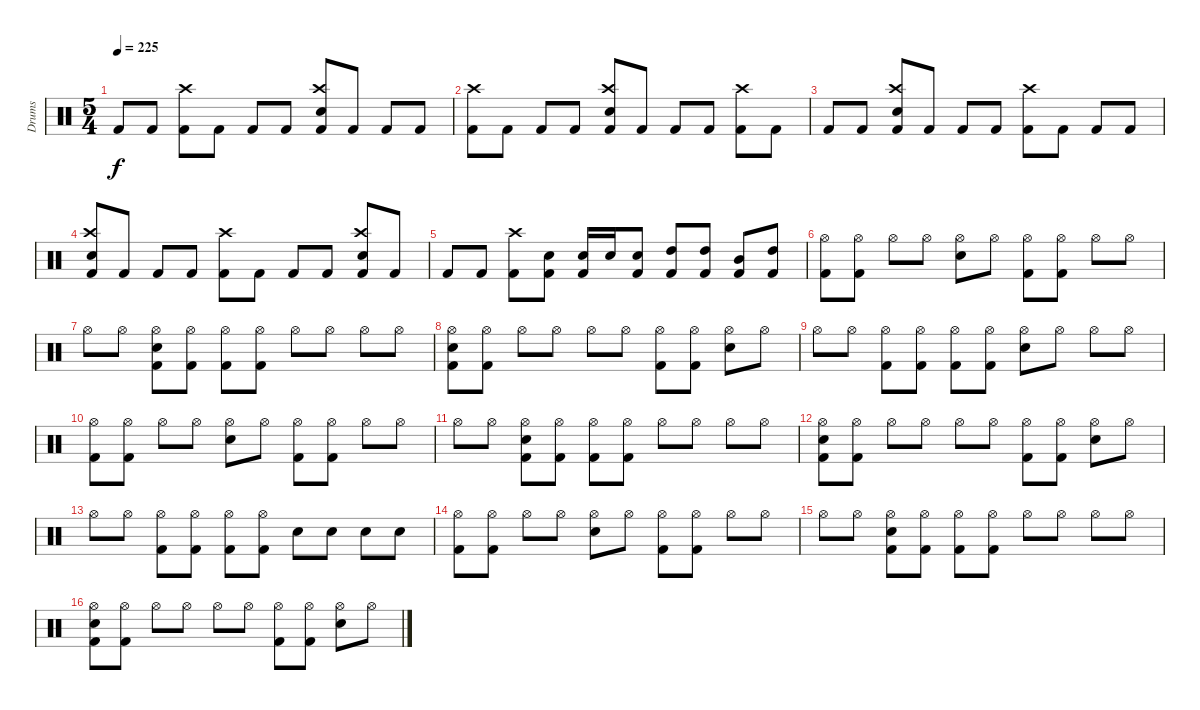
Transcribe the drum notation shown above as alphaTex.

\track ("Drums" "Drums") {instrument percussion}
\staff {score}
\articulation defaults
\ts (5 4)
\tempo 225
\clef neutral
\ks c "Kick (hit) 2".8{dy f} "Kick (hit) 2".8
("Crash high (hit)" "Kick (hit) 2").8 "Kick (hit) 2".8 "Kick (hit) 2".8 "Kick (hit) 2".8 ("Crash high (hit)" "Electric Snare (hit)" "Kick (hit) 2").8 "Kick (hit) 2".8 "Kick (hit) 2".8 "Kick (hit) 2".8 |
("Crash high (hit)" "Kick (hit) 2").8 "Kick (hit) 2".8 "Kick (hit) 2".8 "Kick (hit) 2".8 ("Crash high (hit)" "Electric Snare (hit)" "Kick (hit) 2").8 "Kick (hit) 2".8 "Kick (hit) 2".8 "Kick (hit) 2".8 ("Crash high (hit)" "Kick (hit) 2").8 "Kick (hit) 2".8 |
"Kick (hit) 2".8 "Kick (hit) 2".8 ("Crash high (hit)" "Electric Snare (hit)" "Kick (hit) 2").8 "Kick (hit) 2".8 "Kick (hit) 2".8 "Kick (hit) 2".8 ("Crash high (hit)" "Kick (hit) 2").8 "Kick (hit) 2".8 "Kick (hit) 2".8 "Kick (hit) 2".8 |
("Crash high (hit)" "Electric Snare (hit)" "Kick (hit) 2").8 "Kick (hit) 2".8 "Kick (hit) 2".8 "Kick (hit) 2".8 ("Crash high (hit)" "Kick (hit) 2").8 "Kick (hit) 2".8 "Kick (hit) 2".8 "Kick (hit) 2".8 ("Crash high (hit)" "Electric Snare (hit)" "Kick (hit) 2").8 "Kick (hit) 2".8 |
"Kick (hit) 2".8 "Kick (hit) 2".8 ("Crash high (hit)" "Kick (hit) 2").8 ("Electric Snare (hit)" "Kick (hit) 2").8 ("Electric Snare (hit)" "Kick (hit) 2").16 "Electric Snare (hit)".16 ("Electric Snare (hit)" "Kick (hit) 2").8 ("High Tom (hit)" "Kick (hit) 2").8 ("High Tom (hit)" "Kick (hit) 2").8 ("Mid Tom (hit)" "Kick (hit) 2").8 ("High Tom (hit)" "Kick (hit) 2").8 |
("Hi-Hat (open)" "Kick (hit) 2").8 ("Hi-Hat (open)" "Kick (hit) 2").8 "Hi-Hat (open)".8 "Hi-Hat (open)".8 ("Hi-Hat (open)" "Electric Snare (hit)").8 "Hi-Hat (open)".8 ("Hi-Hat (open)" "Kick (hit) 2").8 ("Hi-Hat (open)" "Kick (hit) 2").8 "Hi-Hat (open)".8 "Hi-Hat (open)".8 |
"Hi-Hat (open)".8 "Hi-Hat (open)".8 ("Hi-Hat (open)" "Electric Snare (hit)" "Kick (hit) 2").8 ("Hi-Hat (open)" "Kick (hit) 2").8 ("Hi-Hat (open)" "Kick (hit) 2").8 ("Hi-Hat (open)" "Kick (hit) 2").8 "Hi-Hat (open)".8 "Hi-Hat (open)".8 "Hi-Hat (open)".8 "Hi-Hat (open)".8 |
("Hi-Hat (open)" "Electric Snare (hit)" "Kick (hit) 2").8 ("Hi-Hat (open)" "Kick (hit) 2").8 "Hi-Hat (open)".8 "Hi-Hat (open)".8 "Hi-Hat (open)".8 "Hi-Hat (open)".8 ("Hi-Hat (open)" "Kick (hit) 2").8 ("Hi-Hat (open)" "Kick (hit) 2").8 ("Hi-Hat (open)" "Electric Snare (hit)").8 "Hi-Hat (open)".8 |
"Hi-Hat (open)".8 "Hi-Hat (open)".8 ("Hi-Hat (open)" "Kick (hit) 2").8 ("Hi-Hat (open)" "Kick (hit) 2").8 ("Hi-Hat (open)" "Kick (hit) 2").8 ("Hi-Hat (open)" "Kick (hit) 2").8 ("Hi-Hat (open)" "Electric Snare (hit)").8 "Hi-Hat (open)".8 "Hi-Hat (open)".8 "Hi-Hat (open)".8 |
("Hi-Hat (open)" "Kick (hit) 2").8 ("Hi-Hat (open)" "Kick (hit) 2").8 "Hi-Hat (open)".8 "Hi-Hat (open)".8 ("Hi-Hat (open)" "Electric Snare (hit)").8 "Hi-Hat (open)".8 ("Hi-Hat (open)" "Kick (hit) 2").8 ("Hi-Hat (open)" "Kick (hit) 2").8 "Hi-Hat (open)".8 "Hi-Hat (open)".8 |
"Hi-Hat (open)".8 "Hi-Hat (open)".8 ("Hi-Hat (open)" "Electric Snare (hit)" "Kick (hit) 2").8 ("Hi-Hat (open)" "Kick (hit) 2").8 ("Hi-Hat (open)" "Kick (hit) 2").8 ("Hi-Hat (open)" "Kick (hit) 2").8 "Hi-Hat (open)".8 "Hi-Hat (open)".8 "Hi-Hat (open)".8 "Hi-Hat (open)".8 |
("Hi-Hat (open)" "Electric Snare (hit)" "Kick (hit) 2").8 ("Hi-Hat (open)" "Kick (hit) 2").8 "Hi-Hat (open)".8 "Hi-Hat (open)".8 "Hi-Hat (open)".8 "Hi-Hat (open)".8 ("Hi-Hat (open)" "Kick (hit) 2").8 ("Hi-Hat (open)" "Kick (hit) 2").8 ("Hi-Hat (open)" "Electric Snare (hit)").8 "Hi-Hat (open)".8 |
"Hi-Hat (open)".8 "Hi-Hat (open)".8 ("Hi-Hat (open)" "Kick (hit) 2").8 ("Hi-Hat (open)" "Kick (hit) 2").8 ("Hi-Hat (open)" "Kick (hit) 2").8 ("Hi-Hat (open)" "Kick (hit) 2").8 "Electric Snare (hit)".8 "Electric Snare (hit)".8 "Electric Snare (hit)".8 "Electric Snare (hit)".8 |
("Hi-Hat (open)" "Kick (hit) 2").8 ("Hi-Hat (open)" "Kick (hit) 2").8 "Hi-Hat (open)".8 "Hi-Hat (open)".8 ("Hi-Hat (open)" "Electric Snare (hit)").8 "Hi-Hat (open)".8 ("Hi-Hat (open)" "Kick (hit) 2").8 ("Hi-Hat (open)" "Kick (hit) 2").8 "Hi-Hat (open)".8 "Hi-Hat (open)".8 |
"Hi-Hat (open)".8 "Hi-Hat (open)".8 ("Hi-Hat (open)" "Electric Snare (hit)" "Kick (hit) 2").8 ("Hi-Hat (open)" "Kick (hit) 2").8 ("Hi-Hat (open)" "Kick (hit) 2").8 ("Hi-Hat (open)" "Kick (hit) 2").8 "Hi-Hat (open)".8 "Hi-Hat (open)".8 "Hi-Hat (open)".8 "Hi-Hat (open)".8 |
("Hi-Hat (open)" "Electric Snare (hit)" "Kick (hit) 2").8 ("Hi-Hat (open)" "Kick (hit) 2").8 "Hi-Hat (open)".8 "Hi-Hat (open)".8 "Hi-Hat (open)".8 "Hi-Hat (open)".8 ("Hi-Hat (open)" "Kick (hit) 2").8 ("Hi-Hat (open)" "Kick (hit) 2").8 ("Hi-Hat (open)" "Electric Snare (hit)").8 "Hi-Hat (open)".8
